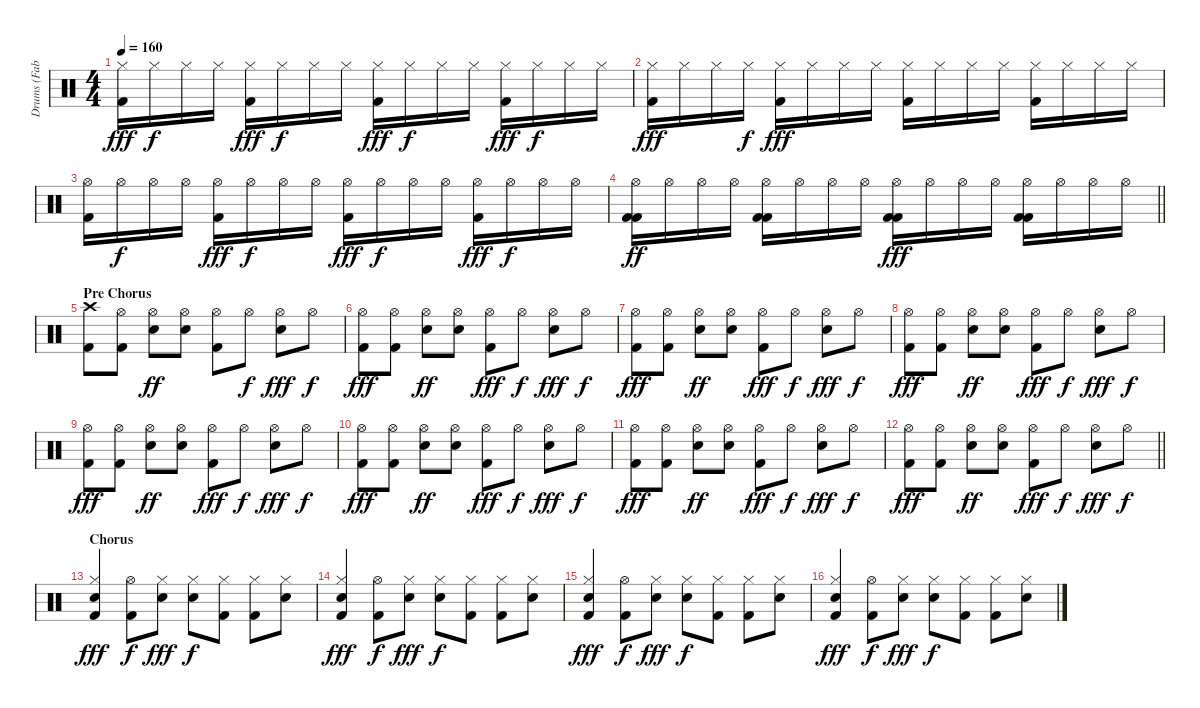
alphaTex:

\track ("Drums (Fabrizio Moretti)" "Drums (Fab") {instrument percussion}
\staff {score}
\articulation defaults
\ts (4 4)
\tempo 160
\clef neutral
\ks c
("Kick (hit) 2" "Hi-Hat (closed)").16{dy fff} "Hi-Hat (closed)".16{dy f} "Hi-Hat (closed)".16 "Hi-Hat (closed)".16 ("Kick (hit) 2" "Hi-Hat (closed)").16{dy fff} "Hi-Hat (closed)".16{dy f} "Hi-Hat (closed)".16 "Hi-Hat (closed)".16 ("Kick (hit) 2" "Hi-Hat (closed)").16{dy fff} "Hi-Hat (closed)".16{dy f} "Hi-Hat (closed)".16 "Hi-Hat (closed)".16 ("Kick (hit) 2" "Hi-Hat (closed)").16{dy fff} "Hi-Hat (closed)".16{dy f} "Hi-Hat (closed)".16 "Hi-Hat (closed)".16 |
("Kick (hit) 2" "Hi-Hat (closed)").16{dy fff} "Hi-Hat (closed)".16 "Hi-Hat (closed)".16 "Hi-Hat (closed)".16{dy f} ("Kick (hit) 2" "Hi-Hat (closed)").16{dy fff} "Hi-Hat (closed)".16 "Hi-Hat (closed)".16 "Hi-Hat (closed)".16 ("Kick (hit) 2" "Hi-Hat (closed)").16 "Hi-Hat (closed)".16 "Hi-Hat (closed)".16 "Hi-Hat (closed)".16 ("Kick (hit) 2" "Hi-Hat (closed)").16 "Hi-Hat (closed)".16 "Hi-Hat (closed)".16 "Hi-Hat (closed)".16 |
("Kick (hit) 2" "Hi-Hat (open)").16 "Hi-Hat (open)".16{dy f} "Hi-Hat (open)".16 "Hi-Hat (open)".16 ("Kick (hit) 2" "Hi-Hat (open)").16{dy fff} "Hi-Hat (open)".16{dy f} "Hi-Hat (open)".16 "Hi-Hat (open)".16 ("Kick (hit) 2" "Hi-Hat (open)").16{dy fff} "Hi-Hat (open)".16{dy f} "Hi-Hat (open)".16 "Hi-Hat (open)".16 ("Kick (hit) 2" "Hi-Hat (open)").16{dy fff} "Hi-Hat (open)".16{dy f} "Hi-Hat (open)".16 "Hi-Hat (open)".16 |
\barLineRight lightlight
("Kick (hit) 2" "Kick (hit) 2" "Hi-Hat (open)").16{dy ff} "Hi-Hat (open)".16 "Hi-Hat (open)".16 "Hi-Hat (open)".16 ("Kick (hit) 2" "Kick (hit) 2" "Hi-Hat (open)").16 "Hi-Hat (open)".16 "Hi-Hat (open)".16 "Hi-Hat (open)".16 ("Kick (hit) 2" "Kick (hit) 2" "Hi-Hat (open)").16{dy fff} "Hi-Hat (open)".16 "Hi-Hat (open)".16 "Hi-Hat (open)".16 ("Kick (hit) 2" "Kick (hit) 2" "Hi-Hat (open)").16 "Hi-Hat (open)".16 "Hi-Hat (open)".16 "Hi-Hat (open)".16 |
\section ("" "Pre Chorus")
("Kick (hit) 2" "Crash high (hit)").8 ("Kick (hit) 2" "Hi-Hat (open)").8 ("Electric Snare (hit)" "Hi-Hat (open)").8{dy ff} ("Electric Snare (hit)" "Hi-Hat (open)").8 ("Kick (hit) 2" "Hi-Hat (open)").8 "Hi-Hat (open)".8{dy f} ("Electric Snare (hit)" "Hi-Hat (open)").8{dy fff} "Hi-Hat (open)".8{dy f} |
("Kick (hit) 2" "Hi-Hat (open)").8{dy fff} ("Kick (hit) 2" "Hi-Hat (open)").8 ("Electric Snare (hit)" "Hi-Hat (open)").8{dy ff} ("Electric Snare (hit)" "Hi-Hat (open)").8 ("Kick (hit) 2" "Hi-Hat (open)").8{dy fff} "Hi-Hat (open)".8{dy f} ("Electric Snare (hit)" "Hi-Hat (open)").8{dy fff} "Hi-Hat (open)".8{dy f} |
("Kick (hit) 2" "Hi-Hat (open)").8{dy fff} ("Kick (hit) 2" "Hi-Hat (open)").8 ("Electric Snare (hit)" "Hi-Hat (open)").8{dy ff} ("Electric Snare (hit)" "Hi-Hat (open)").8 ("Kick (hit) 2" "Hi-Hat (open)").8{dy fff} "Hi-Hat (open)".8{dy f} ("Electric Snare (hit)" "Hi-Hat (open)").8{dy fff} "Hi-Hat (open)".8{dy f} |
("Kick (hit) 2" "Hi-Hat (open)").8{dy fff} ("Kick (hit) 2" "Hi-Hat (open)").8 ("Electric Snare (hit)" "Hi-Hat (open)").8{dy ff} ("Electric Snare (hit)" "Hi-Hat (open)").8 ("Kick (hit) 2" "Hi-Hat (open)").8{dy fff} "Hi-Hat (open)".8{dy f} ("Electric Snare (hit)" "Hi-Hat (open)").8{dy fff} "Hi-Hat (open)".8{dy f} |
("Kick (hit) 2" "Hi-Hat (open)").8{dy fff} ("Kick (hit) 2" "Hi-Hat (open)").8 ("Electric Snare (hit)" "Hi-Hat (open)").8{dy ff} ("Electric Snare (hit)" "Hi-Hat (open)").8 ("Kick (hit) 2" "Hi-Hat (open)").8{dy fff} "Hi-Hat (open)".8{dy f} ("Electric Snare (hit)" "Hi-Hat (open)").8{dy fff} "Hi-Hat (open)".8{dy f} |
("Kick (hit) 2" "Hi-Hat (open)").8{dy fff} ("Kick (hit) 2" "Hi-Hat (open)").8 ("Electric Snare (hit)" "Hi-Hat (open)").8{dy ff} ("Electric Snare (hit)" "Hi-Hat (open)").8 ("Kick (hit) 2" "Hi-Hat (open)").8{dy fff} "Hi-Hat (open)".8{dy f} ("Electric Snare (hit)" "Hi-Hat (open)").8{dy fff} "Hi-Hat (open)".8{dy f} |
("Kick (hit) 2" "Hi-Hat (open)").8{dy fff} ("Kick (hit) 2" "Hi-Hat (open)").8 ("Electric Snare (hit)" "Hi-Hat (open)").8{dy ff} ("Electric Snare (hit)" "Hi-Hat (open)").8 ("Kick (hit) 2" "Hi-Hat (open)").8{dy fff} "Hi-Hat (open)".8{dy f} ("Electric Snare (hit)" "Hi-Hat (open)").8{dy fff} "Hi-Hat (open)".8{dy f} |
\barLineRight lightlight
("Kick (hit) 2" "Hi-Hat (open)").8{dy fff} ("Kick (hit) 2" "Hi-Hat (open)").8 ("Electric Snare (hit)" "Hi-Hat (open)").8{dy ff} ("Electric Snare (hit)" "Hi-Hat (open)").8 ("Kick (hit) 2" "Hi-Hat (open)").8{dy fff} "Hi-Hat (open)".8{dy f} ("Electric Snare (hit)" "Hi-Hat (open)").8{dy fff} "Hi-Hat (open)".8{dy f} |
\section ("" "Chorus")
("Kick (hit) 2" "Electric Snare (hit)" "Hi-Hat (closed)").4{dy fff} ("Kick (hit) 2" "Hi-Hat (open)").8{dy f} ("Electric Snare (hit)" "Hi-Hat (closed)").8{dy fff} ("Electric Snare (hit)" "Hi-Hat (closed)").8{dy f} ("Kick (hit) 2" "Hi-Hat (closed)").8 ("Kick (hit) 2" "Hi-Hat (closed)").8 ("Electric Snare (hit)" "Hi-Hat (closed)").8 |
("Kick (hit) 2" "Electric Snare (hit)" "Hi-Hat (closed)").4{dy fff} ("Kick (hit) 2" "Hi-Hat (open)").8{dy f} ("Electric Snare (hit)" "Hi-Hat (closed)").8{dy fff} ("Electric Snare (hit)" "Hi-Hat (closed)").8{dy f} ("Kick (hit) 2" "Hi-Hat (closed)").8 ("Kick (hit) 2" "Hi-Hat (closed)").8 ("Electric Snare (hit)" "Hi-Hat (closed)").8 |
("Kick (hit) 2" "Electric Snare (hit)" "Hi-Hat (closed)").4{dy fff} ("Kick (hit) 2" "Hi-Hat (open)").8{dy f} ("Electric Snare (hit)" "Hi-Hat (closed)").8{dy fff} ("Electric Snare (hit)" "Hi-Hat (closed)").8{dy f} ("Kick (hit) 2" "Hi-Hat (closed)").8 ("Kick (hit) 2" "Hi-Hat (closed)").8 ("Electric Snare (hit)" "Hi-Hat (closed)").8 |
("Kick (hit) 2" "Electric Snare (hit)" "Hi-Hat (closed)").4{dy fff} ("Kick (hit) 2" "Hi-Hat (open)").8{dy f} ("Electric Snare (hit)" "Hi-Hat (closed)").8{dy fff} ("Electric Snare (hit)" "Hi-Hat (closed)").8{dy f} ("Kick (hit) 2" "Hi-Hat (closed)").8 ("Kick (hit) 2" "Hi-Hat (closed)").8 ("Electric Snare (hit)" "Hi-Hat (closed)").8
